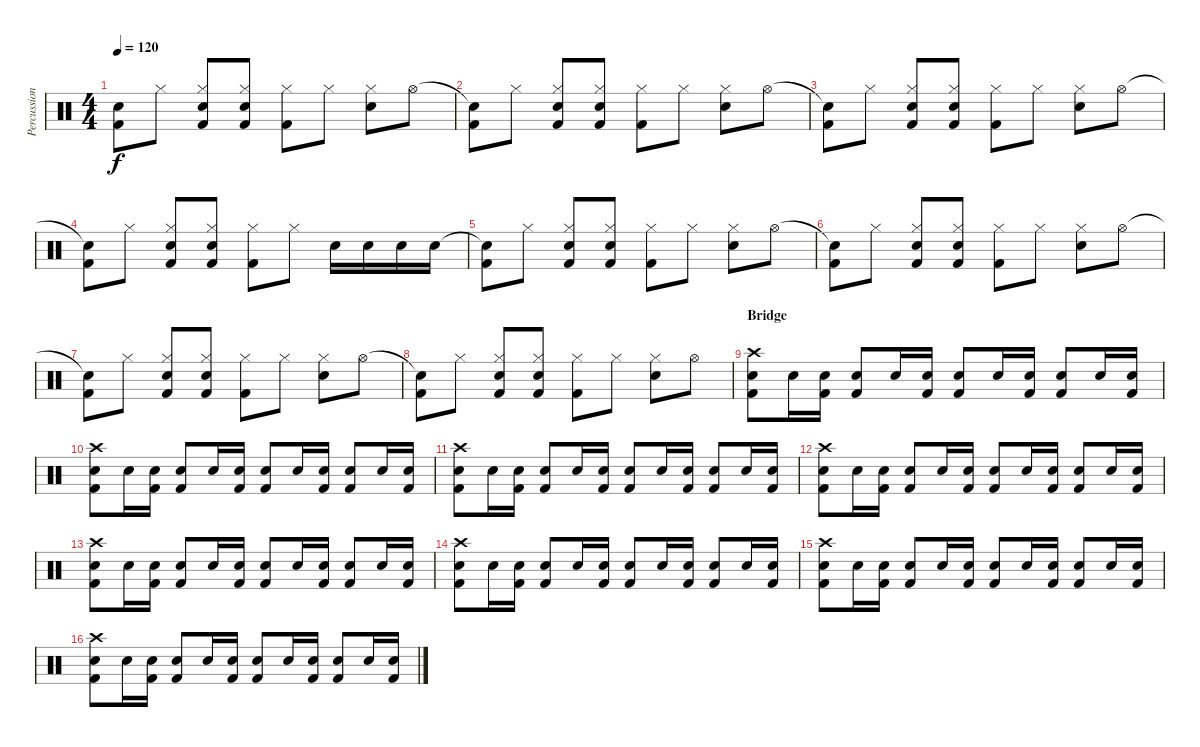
\track ("Percussion" "Percussion") {instrument percussion}
\staff {score}
\articulation defaults
\ts (4 4)
\tempo 120
\clef neutral
\ks c
("Snare (hit)"{t} "Kick (hit) 2").8{dy f} "Hi-Hat (closed)".8 ("Hi-Hat (closed)" "Kick (hit) 2" "Electric Snare (hit)").8 ("Hi-Hat (closed)" "Kick (hit) 2" "Electric Snare (hit)").8 ("Hi-Hat (closed)" "Kick (hit) 2").8 "Hi-Hat (closed)".8 ("Hi-Hat (closed)" "Electric Snare (hit)").8 "Hi-Hat (open)".8 |
("Snare (hit)"{t} "Kick (hit) 2").8 "Hi-Hat (closed)".8 ("Hi-Hat (closed)" "Kick (hit) 2" "Electric Snare (hit)").8 ("Hi-Hat (closed)" "Kick (hit) 2" "Electric Snare (hit)").8 ("Hi-Hat (closed)" "Kick (hit) 2").8 "Hi-Hat (closed)".8 ("Hi-Hat (closed)" "Electric Snare (hit)").8 "Hi-Hat (open)".8 |
("Snare (hit)"{t} "Kick (hit) 2").8 "Hi-Hat (closed)".8 ("Hi-Hat (closed)" "Kick (hit) 2" "Electric Snare (hit)").8 ("Hi-Hat (closed)" "Kick (hit) 2" "Electric Snare (hit)").8 ("Hi-Hat (closed)" "Kick (hit) 2").8 "Hi-Hat (closed)".8 ("Hi-Hat (closed)" "Electric Snare (hit)").8 "Hi-Hat (open)".8 |
("Snare (hit)"{t} "Kick (hit) 2").8 "Hi-Hat (closed)".8 ("Hi-Hat (closed)" "Kick (hit) 2" "Electric Snare (hit)").8 ("Hi-Hat (closed)" "Kick (hit) 2" "Electric Snare (hit)").8 ("Hi-Hat (closed)" "Kick (hit) 2").8 "Hi-Hat (closed)".8 "Electric Snare (hit)".16 "Electric Snare (hit)".16 "Electric Snare (hit)".16 "Electric Snare (hit)".16 |
("Snare (hit)"{t} "Kick (hit) 2").8 "Hi-Hat (closed)".8 ("Hi-Hat (closed)" "Kick (hit) 2" "Electric Snare (hit)").8 ("Hi-Hat (closed)" "Kick (hit) 2" "Electric Snare (hit)").8 ("Hi-Hat (closed)" "Kick (hit) 2").8 "Hi-Hat (closed)".8 ("Hi-Hat (closed)" "Electric Snare (hit)").8 "Hi-Hat (open)".8 |
("Snare (hit)"{t} "Kick (hit) 2").8 "Hi-Hat (closed)".8 ("Hi-Hat (closed)" "Kick (hit) 2" "Electric Snare (hit)").8 ("Hi-Hat (closed)" "Kick (hit) 2" "Electric Snare (hit)").8 ("Hi-Hat (closed)" "Kick (hit) 2").8 "Hi-Hat (closed)".8 ("Hi-Hat (closed)" "Electric Snare (hit)").8 "Hi-Hat (open)".8 |
("Snare (hit)"{t} "Kick (hit) 2").8 "Hi-Hat (closed)".8 ("Hi-Hat (closed)" "Kick (hit) 2" "Electric Snare (hit)").8 ("Hi-Hat (closed)" "Kick (hit) 2" "Electric Snare (hit)").8 ("Hi-Hat (closed)" "Kick (hit) 2").8 "Hi-Hat (closed)".8 ("Hi-Hat (closed)" "Electric Snare (hit)").8 "Hi-Hat (open)".8 |
("Snare (hit)"{t} "Kick (hit) 2").8 "Hi-Hat (closed)".8 ("Hi-Hat (closed)" "Kick (hit) 2" "Electric Snare (hit)").8 ("Hi-Hat (closed)" "Kick (hit) 2" "Electric Snare (hit)").8 ("Hi-Hat (closed)" "Kick (hit) 2").8 "Hi-Hat (closed)".8 ("Hi-Hat (closed)" "Electric Snare (hit)").8 "Hi-Hat (open)".8 |
\section ("" "Bridge")
("Crash high (hit)" "Kick (hit) 2" "Electric Snare (hit)").8 "Electric Snare (hit)".16 ("Kick (hit) 2" "Electric Snare (hit)").16 ("Kick (hit) 2" "Electric Snare (hit)").8 "Electric Snare (hit)".16 ("Kick (hit) 2" "Electric Snare (hit)").16 ("Kick (hit) 2" "Electric Snare (hit)").8 "Electric Snare (hit)".16 ("Kick (hit) 2" "Electric Snare (hit)").16 ("Kick (hit) 2" "Electric Snare (hit)").8 "Electric Snare (hit)".16 ("Kick (hit) 2" "Electric Snare (hit)").16 |
("Crash high (hit)" "Kick (hit) 2" "Electric Snare (hit)").8 "Electric Snare (hit)".16 ("Kick (hit) 2" "Electric Snare (hit)").16 ("Kick (hit) 2" "Electric Snare (hit)").8 "Electric Snare (hit)".16 ("Kick (hit) 2" "Electric Snare (hit)").16 ("Kick (hit) 2" "Electric Snare (hit)").8 "Electric Snare (hit)".16 ("Kick (hit) 2" "Electric Snare (hit)").16 ("Kick (hit) 2" "Electric Snare (hit)").8 "Electric Snare (hit)".16 ("Kick (hit) 2" "Electric Snare (hit)").16 |
("Crash high (hit)" "Kick (hit) 2" "Electric Snare (hit)").8 "Electric Snare (hit)".16 ("Kick (hit) 2" "Electric Snare (hit)").16 ("Kick (hit) 2" "Electric Snare (hit)").8 "Electric Snare (hit)".16 ("Kick (hit) 2" "Electric Snare (hit)").16 ("Kick (hit) 2" "Electric Snare (hit)").8 "Electric Snare (hit)".16 ("Kick (hit) 2" "Electric Snare (hit)").16 ("Kick (hit) 2" "Electric Snare (hit)").8 "Electric Snare (hit)".16 ("Kick (hit) 2" "Electric Snare (hit)").16 |
("Crash high (hit)" "Kick (hit) 2" "Electric Snare (hit)").8 "Electric Snare (hit)".16 ("Kick (hit) 2" "Electric Snare (hit)").16 ("Kick (hit) 2" "Electric Snare (hit)").8 "Electric Snare (hit)".16 ("Kick (hit) 2" "Electric Snare (hit)").16 ("Kick (hit) 2" "Electric Snare (hit)").8 "Electric Snare (hit)".16 ("Kick (hit) 2" "Electric Snare (hit)").16 ("Kick (hit) 2" "Electric Snare (hit)").8 "Electric Snare (hit)".16 ("Kick (hit) 2" "Electric Snare (hit)").16 |
("Crash high (hit)" "Kick (hit) 2" "Electric Snare (hit)").8 "Electric Snare (hit)".16 ("Kick (hit) 2" "Electric Snare (hit)").16 ("Kick (hit) 2" "Electric Snare (hit)").8 "Electric Snare (hit)".16 ("Kick (hit) 2" "Electric Snare (hit)").16 ("Kick (hit) 2" "Electric Snare (hit)").8 "Electric Snare (hit)".16 ("Kick (hit) 2" "Electric Snare (hit)").16 ("Kick (hit) 2" "Electric Snare (hit)").8 "Electric Snare (hit)".16 ("Kick (hit) 2" "Electric Snare (hit)").16 |
("Crash high (hit)" "Kick (hit) 2" "Electric Snare (hit)").8 "Electric Snare (hit)".16 ("Kick (hit) 2" "Electric Snare (hit)").16 ("Kick (hit) 2" "Electric Snare (hit)").8 "Electric Snare (hit)".16 ("Kick (hit) 2" "Electric Snare (hit)").16 ("Kick (hit) 2" "Electric Snare (hit)").8 "Electric Snare (hit)".16 ("Kick (hit) 2" "Electric Snare (hit)").16 ("Kick (hit) 2" "Electric Snare (hit)").8 "Electric Snare (hit)".16 ("Kick (hit) 2" "Electric Snare (hit)").16 |
("Crash high (hit)" "Kick (hit) 2" "Electric Snare (hit)").8 "Electric Snare (hit)".16 ("Kick (hit) 2" "Electric Snare (hit)").16 ("Kick (hit) 2" "Electric Snare (hit)").8 "Electric Snare (hit)".16 ("Kick (hit) 2" "Electric Snare (hit)").16 ("Kick (hit) 2" "Electric Snare (hit)").8 "Electric Snare (hit)".16 ("Kick (hit) 2" "Electric Snare (hit)").16 ("Kick (hit) 2" "Electric Snare (hit)").8 "Electric Snare (hit)".16 ("Kick (hit) 2" "Electric Snare (hit)").16 |
("Crash high (hit)" "Kick (hit) 2" "Electric Snare (hit)").8 "Electric Snare (hit)".16 ("Kick (hit) 2" "Electric Snare (hit)").16 ("Kick (hit) 2" "Electric Snare (hit)").8 "Electric Snare (hit)".16 ("Kick (hit) 2" "Electric Snare (hit)").16 ("Kick (hit) 2" "Electric Snare (hit)").8 "Electric Snare (hit)".16 ("Kick (hit) 2" "Electric Snare (hit)").16 ("Kick (hit) 2" "Electric Snare (hit)").8 "Electric Snare (hit)".16 ("Kick (hit) 2" "Electric Snare (hit)").16
